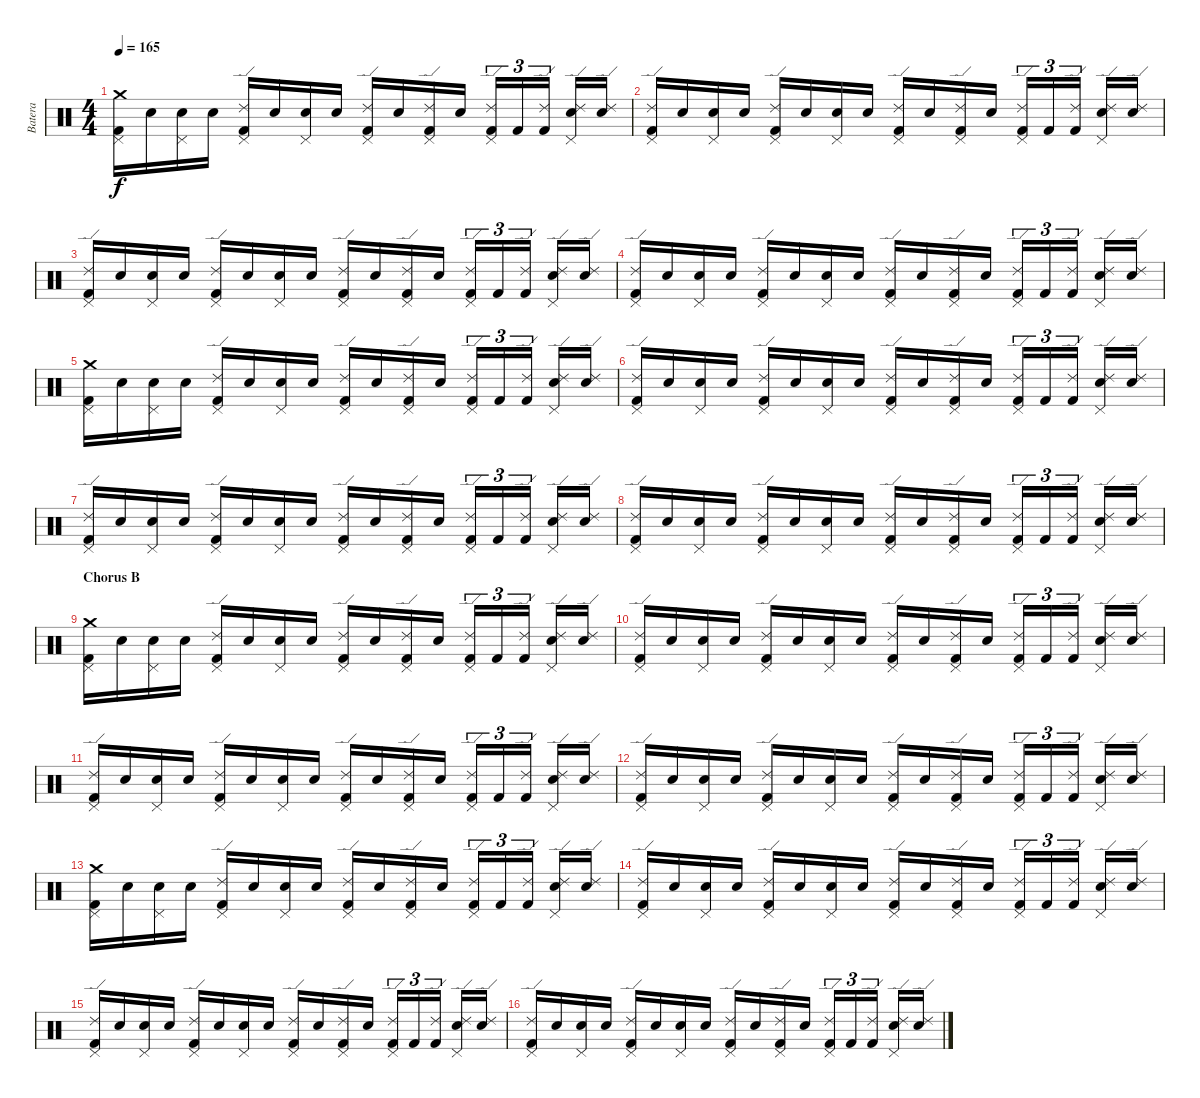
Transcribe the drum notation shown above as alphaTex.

\track ("Batera" "Batera") {instrument percussion}
\staff {score}
\articulation defaults
\ts (4 4)
\tempo 165
\clef neutral
\ks c
("Kick (hit) 2" "Pedal Hi-Hat (hit)" "Crash medium (hit)").16{dy f} "Snare (hit)".16 ("Snare (hit)" "Pedal Hi-Hat (hit)").16 "Snare (hit)".16 ("Kick (hit) 2" "Pedal Hi-Hat (hit)" "Ride (edge) 2").16 "Snare (hit)".16 ("Pedal Hi-Hat (hit)" "Snare (hit) 2").16 "Snare (hit)".16 ("Kick (hit) 2" "Pedal Hi-Hat (hit)" "Ride (edge) 2").16 "Snare (hit)".16 ("Kick (hit) 2" "Pedal Hi-Hat (hit)" "Ride (edge) 2").16 "Snare (hit)".16 ("Kick (hit) 2" "Pedal Hi-Hat (hit)" "Ride (edge) 2").16{tu (3 2)} "Kick (hit) 2".16{tu (3 2)} ("Kick (hit) 2" "Ride (edge) 2").16{tu (3 2)} ("Pedal Hi-Hat (hit)" "Snare (hit) 2" "Ride (edge) 2").16 ("Snare (hit)" "Ride (edge) 2").16 |
("Kick (hit) 2" "Pedal Hi-Hat (hit)" "Ride (edge) 2").16 "Snare (hit)".16 ("Snare (hit)" "Pedal Hi-Hat (hit)").16 "Snare (hit)".16 ("Kick (hit) 2" "Pedal Hi-Hat (hit)" "Ride (edge) 2").16 "Snare (hit)".16 ("Pedal Hi-Hat (hit)" "Snare (hit) 2").16 "Snare (hit)".16 ("Kick (hit) 2" "Pedal Hi-Hat (hit)" "Ride (edge) 2").16 "Snare (hit)".16 ("Kick (hit) 2" "Pedal Hi-Hat (hit)" "Ride (edge) 2").16 "Snare (hit)".16 ("Kick (hit) 2" "Pedal Hi-Hat (hit)" "Ride (edge) 2").16{tu (3 2)} "Kick (hit) 2".16{tu (3 2)} ("Kick (hit) 2" "Ride (edge) 2").16{tu (3 2)} ("Pedal Hi-Hat (hit)" "Snare (hit) 2" "Ride (edge) 2").16 ("Snare (hit)" "Ride (edge) 2").16 |
("Kick (hit) 2" "Pedal Hi-Hat (hit)" "Ride (edge) 2").16 "Snare (hit)".16 ("Snare (hit)" "Pedal Hi-Hat (hit)").16 "Snare (hit)".16 ("Kick (hit) 2" "Pedal Hi-Hat (hit)" "Ride (edge) 2").16 "Snare (hit)".16 ("Pedal Hi-Hat (hit)" "Snare (hit) 2").16 "Snare (hit)".16 ("Kick (hit) 2" "Pedal Hi-Hat (hit)" "Ride (edge) 2").16 "Snare (hit)".16 ("Kick (hit) 2" "Pedal Hi-Hat (hit)" "Ride (edge) 2").16 "Snare (hit)".16 ("Kick (hit) 2" "Pedal Hi-Hat (hit)" "Ride (edge) 2").16{tu (3 2)} "Kick (hit) 2".16{tu (3 2)} ("Kick (hit) 2" "Ride (edge) 2").16{tu (3 2)} ("Pedal Hi-Hat (hit)" "Snare (hit) 2" "Ride (edge) 2").16 ("Snare (hit)" "Ride (edge) 2").16 |
("Kick (hit) 2" "Pedal Hi-Hat (hit)" "Ride (edge) 2").16 "Snare (hit)".16 ("Snare (hit)" "Pedal Hi-Hat (hit)").16 "Snare (hit)".16 ("Kick (hit) 2" "Pedal Hi-Hat (hit)" "Ride (edge) 2").16 "Snare (hit)".16 ("Pedal Hi-Hat (hit)" "Snare (hit) 2").16 "Snare (hit)".16 ("Kick (hit) 2" "Pedal Hi-Hat (hit)" "Ride (edge) 2").16 "Snare (hit)".16 ("Kick (hit) 2" "Pedal Hi-Hat (hit)" "Ride (edge) 2").16 "Snare (hit)".16 ("Kick (hit) 2" "Pedal Hi-Hat (hit)" "Ride (edge) 2").16{tu (3 2)} "Kick (hit) 2".16{tu (3 2)} ("Kick (hit) 2" "Ride (edge) 2").16{tu (3 2)} ("Pedal Hi-Hat (hit)" "Snare (hit) 2" "Ride (edge) 2").16 ("Snare (hit)" "Ride (edge) 2").16 |
("Kick (hit) 2" "Pedal Hi-Hat (hit)" "Crash medium (hit)").16 "Snare (hit)".16 ("Snare (hit)" "Pedal Hi-Hat (hit)").16 "Snare (hit)".16 ("Kick (hit) 2" "Pedal Hi-Hat (hit)" "Ride (edge) 2").16 "Snare (hit)".16 ("Pedal Hi-Hat (hit)" "Snare (hit) 2").16 "Snare (hit)".16 ("Kick (hit) 2" "Pedal Hi-Hat (hit)" "Ride (edge) 2").16 "Snare (hit)".16 ("Kick (hit) 2" "Pedal Hi-Hat (hit)" "Ride (edge) 2").16 "Snare (hit)".16 ("Kick (hit) 2" "Pedal Hi-Hat (hit)" "Ride (edge) 2").16{tu (3 2)} "Kick (hit) 2".16{tu (3 2)} ("Kick (hit) 2" "Ride (edge) 2").16{tu (3 2)} ("Pedal Hi-Hat (hit)" "Snare (hit) 2" "Ride (edge) 2").16 ("Snare (hit)" "Ride (edge) 2").16 |
("Kick (hit) 2" "Pedal Hi-Hat (hit)" "Ride (edge) 2").16 "Snare (hit)".16 ("Snare (hit)" "Pedal Hi-Hat (hit)").16 "Snare (hit)".16 ("Kick (hit) 2" "Pedal Hi-Hat (hit)" "Ride (edge) 2").16 "Snare (hit)".16 ("Pedal Hi-Hat (hit)" "Snare (hit) 2").16 "Snare (hit)".16 ("Kick (hit) 2" "Pedal Hi-Hat (hit)" "Ride (edge) 2").16 "Snare (hit)".16 ("Kick (hit) 2" "Pedal Hi-Hat (hit)" "Ride (edge) 2").16 "Snare (hit)".16 ("Kick (hit) 2" "Pedal Hi-Hat (hit)" "Ride (edge) 2").16{tu (3 2)} "Kick (hit) 2".16{tu (3 2)} ("Kick (hit) 2" "Ride (edge) 2").16{tu (3 2)} ("Pedal Hi-Hat (hit)" "Snare (hit) 2" "Ride (edge) 2").16 ("Snare (hit)" "Ride (edge) 2").16 |
("Kick (hit) 2" "Pedal Hi-Hat (hit)" "Ride (edge) 2").16 "Snare (hit)".16 ("Snare (hit)" "Pedal Hi-Hat (hit)").16 "Snare (hit)".16 ("Kick (hit) 2" "Pedal Hi-Hat (hit)" "Ride (edge) 2").16 "Snare (hit)".16 ("Pedal Hi-Hat (hit)" "Snare (hit) 2").16 "Snare (hit)".16 ("Kick (hit) 2" "Pedal Hi-Hat (hit)" "Ride (edge) 2").16 "Snare (hit)".16 ("Kick (hit) 2" "Pedal Hi-Hat (hit)" "Ride (edge) 2").16 "Snare (hit)".16 ("Kick (hit) 2" "Pedal Hi-Hat (hit)" "Ride (edge) 2").16{tu (3 2)} "Kick (hit) 2".16{tu (3 2)} ("Kick (hit) 2" "Ride (edge) 2").16{tu (3 2)} ("Pedal Hi-Hat (hit)" "Snare (hit) 2" "Ride (edge) 2").16 ("Snare (hit)" "Ride (edge) 2").16 |
("Kick (hit) 2" "Pedal Hi-Hat (hit)" "Ride (edge) 2").16 "Snare (hit)".16 ("Snare (hit)" "Pedal Hi-Hat (hit)").16 "Snare (hit)".16 ("Kick (hit) 2" "Pedal Hi-Hat (hit)" "Ride (edge) 2").16 "Snare (hit)".16 ("Pedal Hi-Hat (hit)" "Snare (hit) 2").16 "Snare (hit)".16 ("Kick (hit) 2" "Pedal Hi-Hat (hit)" "Ride (edge) 2").16 "Snare (hit)".16 ("Kick (hit) 2" "Pedal Hi-Hat (hit)" "Ride (edge) 2").16 "Snare (hit)".16 ("Kick (hit) 2" "Pedal Hi-Hat (hit)" "Ride (edge) 2").16{tu (3 2)} "Kick (hit) 2".16{tu (3 2)} ("Kick (hit) 2" "Ride (edge) 2").16{tu (3 2)} ("Pedal Hi-Hat (hit)" "Snare (hit) 2" "Ride (edge) 2").16 ("Snare (hit)" "Ride (edge) 2").16 |
\section ("" "Chorus B")
("Kick (hit) 2" "Pedal Hi-Hat (hit)" "Crash medium (hit)").16 "Snare (hit)".16 ("Snare (hit)" "Pedal Hi-Hat (hit)").16 "Snare (hit)".16 ("Kick (hit) 2" "Pedal Hi-Hat (hit)" "Ride (edge) 2").16 "Snare (hit)".16 ("Pedal Hi-Hat (hit)" "Snare (hit) 2").16 "Snare (hit)".16 ("Kick (hit) 2" "Pedal Hi-Hat (hit)" "Ride (edge) 2").16 "Snare (hit)".16 ("Kick (hit) 2" "Pedal Hi-Hat (hit)" "Ride (edge) 2").16 "Snare (hit)".16 ("Kick (hit) 2" "Pedal Hi-Hat (hit)" "Ride (edge) 2").16{tu (3 2)} "Kick (hit) 2".16{tu (3 2)} ("Kick (hit) 2" "Ride (edge) 2").16{tu (3 2)} ("Pedal Hi-Hat (hit)" "Snare (hit) 2" "Ride (edge) 2").16 ("Snare (hit)" "Ride (edge) 2").16 |
("Kick (hit) 2" "Pedal Hi-Hat (hit)" "Ride (edge) 2").16 "Snare (hit)".16 ("Snare (hit)" "Pedal Hi-Hat (hit)").16 "Snare (hit)".16 ("Kick (hit) 2" "Pedal Hi-Hat (hit)" "Ride (edge) 2").16 "Snare (hit)".16 ("Pedal Hi-Hat (hit)" "Snare (hit) 2").16 "Snare (hit)".16 ("Kick (hit) 2" "Pedal Hi-Hat (hit)" "Ride (edge) 2").16 "Snare (hit)".16 ("Kick (hit) 2" "Pedal Hi-Hat (hit)" "Ride (edge) 2").16 "Snare (hit)".16 ("Kick (hit) 2" "Pedal Hi-Hat (hit)" "Ride (edge) 2").16{tu (3 2)} "Kick (hit) 2".16{tu (3 2)} ("Kick (hit) 2" "Ride (edge) 2").16{tu (3 2)} ("Pedal Hi-Hat (hit)" "Snare (hit) 2" "Ride (edge) 2").16 ("Snare (hit)" "Ride (edge) 2").16 |
("Kick (hit) 2" "Pedal Hi-Hat (hit)" "Ride (edge) 2").16 "Snare (hit)".16 ("Snare (hit)" "Pedal Hi-Hat (hit)").16 "Snare (hit)".16 ("Kick (hit) 2" "Pedal Hi-Hat (hit)" "Ride (edge) 2").16 "Snare (hit)".16 ("Pedal Hi-Hat (hit)" "Snare (hit) 2").16 "Snare (hit)".16 ("Kick (hit) 2" "Pedal Hi-Hat (hit)" "Ride (edge) 2").16 "Snare (hit)".16 ("Kick (hit) 2" "Pedal Hi-Hat (hit)" "Ride (edge) 2").16 "Snare (hit)".16 ("Kick (hit) 2" "Pedal Hi-Hat (hit)" "Ride (edge) 2").16{tu (3 2)} "Kick (hit) 2".16{tu (3 2)} ("Kick (hit) 2" "Ride (edge) 2").16{tu (3 2)} ("Pedal Hi-Hat (hit)" "Snare (hit) 2" "Ride (edge) 2").16 ("Snare (hit)" "Ride (edge) 2").16 |
("Kick (hit) 2" "Pedal Hi-Hat (hit)" "Ride (edge) 2").16 "Snare (hit)".16 ("Snare (hit)" "Pedal Hi-Hat (hit)").16 "Snare (hit)".16 ("Kick (hit) 2" "Pedal Hi-Hat (hit)" "Ride (edge) 2").16 "Snare (hit)".16 ("Pedal Hi-Hat (hit)" "Snare (hit) 2").16 "Snare (hit)".16 ("Kick (hit) 2" "Pedal Hi-Hat (hit)" "Ride (edge) 2").16 "Snare (hit)".16 ("Kick (hit) 2" "Pedal Hi-Hat (hit)" "Ride (edge) 2").16 "Snare (hit)".16 ("Kick (hit) 2" "Pedal Hi-Hat (hit)" "Ride (edge) 2").16{tu (3 2)} "Kick (hit) 2".16{tu (3 2)} ("Kick (hit) 2" "Ride (edge) 2").16{tu (3 2)} ("Pedal Hi-Hat (hit)" "Snare (hit) 2" "Ride (edge) 2").16 ("Snare (hit)" "Ride (edge) 2").16 |
("Kick (hit) 2" "Pedal Hi-Hat (hit)" "Crash medium (hit)").16 "Snare (hit)".16 ("Snare (hit)" "Pedal Hi-Hat (hit)").16 "Snare (hit)".16 ("Kick (hit) 2" "Pedal Hi-Hat (hit)" "Ride (edge) 2").16 "Snare (hit)".16 ("Pedal Hi-Hat (hit)" "Snare (hit) 2").16 "Snare (hit)".16 ("Kick (hit) 2" "Pedal Hi-Hat (hit)" "Ride (edge) 2").16 "Snare (hit)".16 ("Kick (hit) 2" "Pedal Hi-Hat (hit)" "Ride (edge) 2").16 "Snare (hit)".16 ("Kick (hit) 2" "Pedal Hi-Hat (hit)" "Ride (edge) 2").16{tu (3 2)} "Kick (hit) 2".16{tu (3 2)} ("Kick (hit) 2" "Ride (edge) 2").16{tu (3 2)} ("Pedal Hi-Hat (hit)" "Snare (hit) 2" "Ride (edge) 2").16 ("Snare (hit)" "Ride (edge) 2").16 |
("Kick (hit) 2" "Pedal Hi-Hat (hit)" "Ride (edge) 2").16 "Snare (hit)".16 ("Snare (hit)" "Pedal Hi-Hat (hit)").16 "Snare (hit)".16 ("Kick (hit) 2" "Pedal Hi-Hat (hit)" "Ride (edge) 2").16 "Snare (hit)".16 ("Pedal Hi-Hat (hit)" "Snare (hit) 2").16 "Snare (hit)".16 ("Kick (hit) 2" "Pedal Hi-Hat (hit)" "Ride (edge) 2").16 "Snare (hit)".16 ("Kick (hit) 2" "Pedal Hi-Hat (hit)" "Ride (edge) 2").16 "Snare (hit)".16 ("Kick (hit) 2" "Pedal Hi-Hat (hit)" "Ride (edge) 2").16{tu (3 2)} "Kick (hit) 2".16{tu (3 2)} ("Kick (hit) 2" "Ride (edge) 2").16{tu (3 2)} ("Pedal Hi-Hat (hit)" "Snare (hit) 2" "Ride (edge) 2").16 ("Snare (hit)" "Ride (edge) 2").16 |
("Kick (hit) 2" "Pedal Hi-Hat (hit)" "Ride (edge) 2").16 "Snare (hit)".16 ("Snare (hit)" "Pedal Hi-Hat (hit)").16 "Snare (hit)".16 ("Kick (hit) 2" "Pedal Hi-Hat (hit)" "Ride (edge) 2").16 "Snare (hit)".16 ("Pedal Hi-Hat (hit)" "Snare (hit) 2").16 "Snare (hit)".16 ("Kick (hit) 2" "Pedal Hi-Hat (hit)" "Ride (edge) 2").16 "Snare (hit)".16 ("Kick (hit) 2" "Pedal Hi-Hat (hit)" "Ride (edge) 2").16 "Snare (hit)".16 ("Kick (hit) 2" "Pedal Hi-Hat (hit)" "Ride (edge) 2").16{tu (3 2)} "Kick (hit) 2".16{tu (3 2)} ("Kick (hit) 2" "Ride (edge) 2").16{tu (3 2)} ("Pedal Hi-Hat (hit)" "Snare (hit) 2" "Ride (edge) 2").16 ("Snare (hit)" "Ride (edge) 2").16 |
("Kick (hit) 2" "Pedal Hi-Hat (hit)" "Ride (edge) 2").16 "Snare (hit)".16 ("Snare (hit)" "Pedal Hi-Hat (hit)").16 "Snare (hit)".16 ("Kick (hit) 2" "Pedal Hi-Hat (hit)" "Ride (edge) 2").16 "Snare (hit)".16 ("Pedal Hi-Hat (hit)" "Snare (hit) 2").16 "Snare (hit)".16 ("Kick (hit) 2" "Pedal Hi-Hat (hit)" "Ride (edge) 2").16 "Snare (hit)".16 ("Kick (hit) 2" "Pedal Hi-Hat (hit)" "Ride (edge) 2").16 "Snare (hit)".16 ("Kick (hit) 2" "Pedal Hi-Hat (hit)" "Ride (edge) 2").16{tu (3 2)} "Kick (hit) 2".16{tu (3 2)} ("Kick (hit) 2" "Ride (edge) 2").16{tu (3 2)} ("Pedal Hi-Hat (hit)" "Snare (hit) 2" "Ride (edge) 2").16 ("Snare (hit)" "Ride (edge) 2").16
